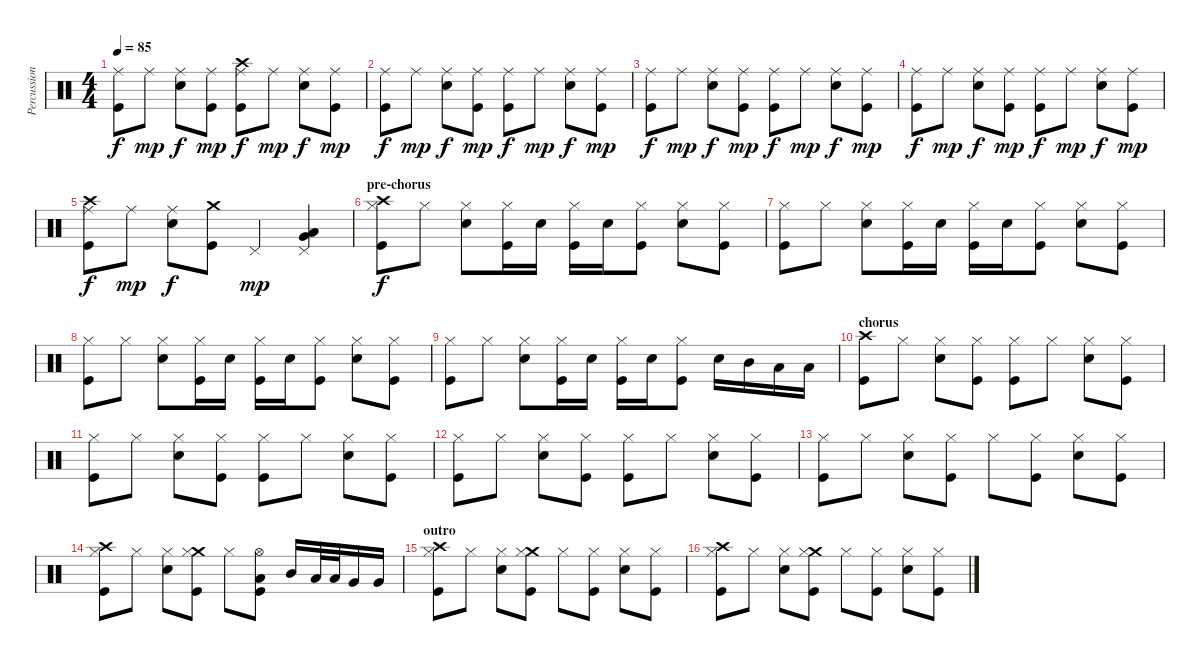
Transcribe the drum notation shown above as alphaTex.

\track ("Percussion" "Percussion") {instrument percussion}
\staff {score}
\articulation defaults
\ts (4 4)
\tempo 85
\clef neutral
\ks c
("Ride (middle)" "Kick (hit)").8{dy f} "Ride (middle)".8{dy mp} ("Ride (middle)" "Snare (hit) 2").8{dy f} ("Ride (middle)" "Kick (hit)").8{dy mp} ("Crash high (hit)" "Ride (middle)" "Kick (hit)").8{dy f} "Ride (middle)".8{dy mp} ("Ride (middle)" "Snare (hit) 2").8{dy f} ("Ride (middle)" "Kick (hit)").8{dy mp} |
("Ride (middle)" "Kick (hit)").8{dy f} "Ride (middle)".8{dy mp} ("Ride (middle)" "Snare (hit) 2").8{dy f} ("Ride (middle)" "Kick (hit)").8{dy mp} ("Ride (middle)" "Kick (hit)").8{dy f} "Ride (middle)".8{dy mp} ("Ride (middle)" "Snare (hit) 2").8{dy f} ("Ride (middle)" "Kick (hit)").8{dy mp} |
("Ride (middle)" "Kick (hit)").8{dy f} "Ride (middle)".8{dy mp} ("Ride (middle)" "Snare (hit) 2").8{dy f} ("Ride (middle)" "Kick (hit)").8{dy mp} ("Ride (middle)" "Kick (hit)").8{dy f} "Ride (middle)".8{dy mp} ("Ride (middle)" "Snare (hit) 2").8{dy f} ("Ride (middle)" "Kick (hit)").8{dy mp} |
("Ride (middle)" "Kick (hit)").8{dy f} "Ride (middle)".8{dy mp} ("Ride (middle)" "Snare (hit) 2").8{dy f} ("Ride (middle)" "Kick (hit)").8{dy mp} ("Ride (middle)" "Kick (hit)").8{dy f} "Ride (middle)".8{dy mp} ("Ride (middle)" "Snare (hit) 2").8{dy f} ("Ride (middle)" "Kick (hit)").8{dy mp} |
("Crash high (hit)" "Ride (middle)" "Kick (hit)").8{dy f} "Ride (middle)".8{dy mp} ("Ride (middle)" "Snare (hit) 2").8{dy f} ("Crash medium (hit)" "Kick (hit)").8 "Pedal Hi-Hat (hit)".4{dy mp} ("Pedal Hi-Hat (hit)" "Low Floor Tom (hit)" "Very Low Tom (hit)").4 |
\section ("" "pre-chorus")
("Crash high (hit)" "Hi-Hat (closed)" "Kick (hit)").8{dy f} "Hi-Hat (closed)".8 ("Hi-Hat (closed)" "Snare (hit) 2").8 ("Hi-Hat (closed)" "Kick (hit)").16 "Snare (hit) 2".16 ("Hi-Hat (closed)" "Kick (hit)").16 "Snare (hit) 2".16 ("Hi-Hat (closed)" "Kick (hit)").8 ("Hi-Hat (closed)" "Snare (hit) 2").8 ("Hi-Hat (closed)" "Kick (hit)").8 |
("Hi-Hat (closed)" "Kick (hit)").8 "Hi-Hat (closed)".8 ("Hi-Hat (closed)" "Snare (hit) 2").8 ("Hi-Hat (closed)" "Kick (hit)").16 "Snare (hit) 2".16 ("Hi-Hat (closed)" "Kick (hit)").16 "Snare (hit) 2".16 ("Hi-Hat (closed)" "Kick (hit)").8 ("Hi-Hat (closed)" "Snare (hit) 2").8 ("Hi-Hat (closed)" "Kick (hit)").8 |
("Hi-Hat (closed)" "Kick (hit)").8 "Hi-Hat (closed)".8 ("Hi-Hat (closed)" "Snare (hit) 2").8 ("Hi-Hat (closed)" "Kick (hit)").16 "Snare (hit) 2".16 ("Hi-Hat (closed)" "Kick (hit)").16 "Snare (hit) 2".16 ("Hi-Hat (closed)" "Kick (hit)").8 ("Hi-Hat (closed)" "Snare (hit) 2").8 ("Hi-Hat (closed)" "Kick (hit)").8 |
("Hi-Hat (closed)" "Kick (hit)").8 "Hi-Hat (closed)".8 ("Hi-Hat (closed)" "Snare (hit) 2").8 ("Hi-Hat (closed)" "Kick (hit)").16 "Snare (hit) 2".16 ("Hi-Hat (closed)" "Kick (hit)").16 "Snare (hit) 2".16 ("Hi-Hat (closed)" "Kick (hit)").8 "Snare (hit) 2".16 "Mid Tom (hit)".16 "Low Tom (hit)".16 "Low Tom (hit)".16 |
\section ("" "chorus")
("Crash high (hit)" "Kick (hit)").8 "Hi-Hat (closed)".8 ("Hi-Hat (closed)" "Snare (hit) 2").8 ("Hi-Hat (closed)" "Kick (hit)").8 ("Hi-Hat (closed)" "Kick (hit)").8 "Hi-Hat (closed)".8 ("Hi-Hat (closed)" "Snare (hit) 2").8 ("Hi-Hat (closed)" "Kick (hit)").8 |
("Hi-Hat (closed)" "Kick (hit)").8 "Hi-Hat (closed)".8 ("Hi-Hat (closed)" "Snare (hit) 2").8 ("Hi-Hat (closed)" "Kick (hit)").8 ("Hi-Hat (closed)" "Kick (hit)").8 "Hi-Hat (closed)".8 ("Hi-Hat (closed)" "Snare (hit) 2").8 ("Hi-Hat (closed)" "Kick (hit)").8 |
("Hi-Hat (closed)" "Kick (hit)").8 "Hi-Hat (closed)".8 ("Hi-Hat (closed)" "Snare (hit) 2").8 ("Hi-Hat (closed)" "Kick (hit)").8 ("Hi-Hat (closed)" "Kick (hit)").8 "Hi-Hat (closed)".8 ("Hi-Hat (closed)" "Snare (hit) 2").8 ("Hi-Hat (closed)" "Kick (hit)").8 |
("Hi-Hat (closed)" "Kick (hit)").8 "Hi-Hat (closed)".8 ("Hi-Hat (closed)" "Snare (hit) 2").8 ("Hi-Hat (closed)" "Kick (hit)").8 "Hi-Hat (closed)".8 ("Hi-Hat (closed)" "Kick (hit)").8 ("Hi-Hat (closed)" "Snare (hit) 2").8 ("Hi-Hat (closed)" "Kick (hit)").8 |
("Crash high (hit)" "Hi-Hat (closed)" "Kick (hit)").8 "Hi-Hat (closed)".8 ("Hi-Hat (closed)" "Snare (hit) 2").8 ("Crash medium (hit)" "Hi-Hat (closed)" "Kick (hit)").8 "Hi-Hat (closed)".8 ("Hi-Hat (open)" "Low Floor Tom (hit)" "Kick (hit)").8 "Mid Tom (hit)".16 "Low Tom (hit)".32 "Low Tom (hit)".32 "Very Low Tom (hit)".16 "Very Low Tom (hit)".16 |
\section ("" "outro")
("Crash high (hit)" "Hi-Hat (closed)" "Kick (hit)").8 "Hi-Hat (closed)".8 ("Hi-Hat (closed)" "Snare (hit) 2").8 ("Crash medium (hit)" "Hi-Hat (closed)" "Kick (hit)").8 "Hi-Hat (closed)".8 ("Hi-Hat (closed)" "Kick (hit)").8 ("Hi-Hat (closed)" "Snare (hit) 2").8 ("Hi-Hat (closed)" "Kick (hit)").8 |
("Crash high (hit)" "Hi-Hat (closed)" "Kick (hit)").8 "Hi-Hat (closed)".8 ("Hi-Hat (closed)" "Snare (hit) 2").8 ("Crash medium (hit)" "Hi-Hat (closed)" "Kick (hit)").8 "Hi-Hat (closed)".8 ("Hi-Hat (closed)" "Kick (hit)").8 ("Hi-Hat (closed)" "Snare (hit) 2").8 ("Hi-Hat (closed)" "Kick (hit)").8
